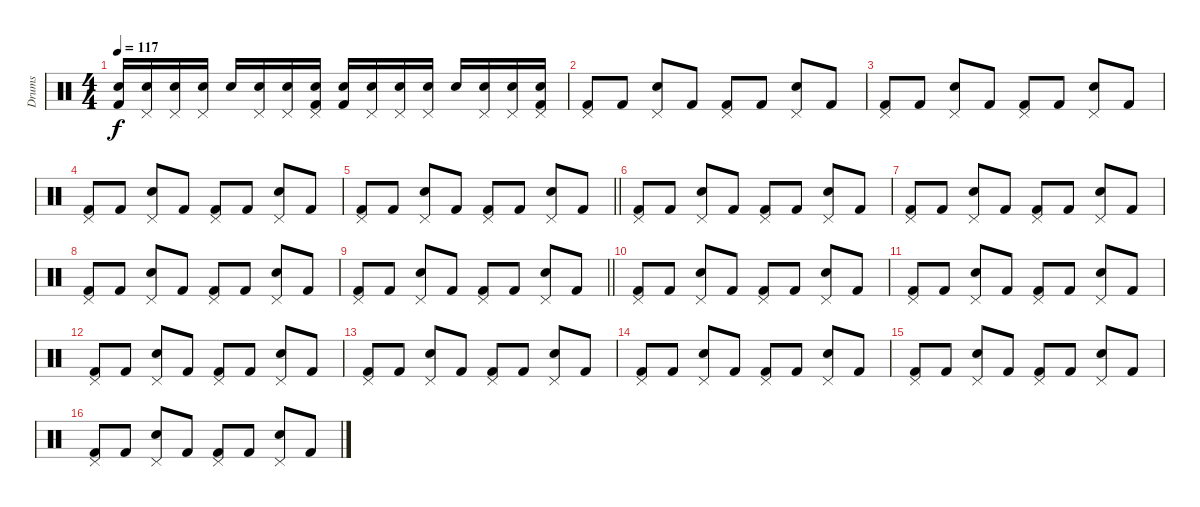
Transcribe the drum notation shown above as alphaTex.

\track ("Drums" "Drums") {instrument percussion}
\staff {score}
\articulation defaults
\ts (4 4)
\tempo 117
\clef neutral
\ks c
("Kick (hit) 2" "Snare (hit) 2").16{dy f} ("Snare (hit) 2" "Pedal Hi-Hat (hit)").16 ("Snare (hit) 2" "Pedal Hi-Hat (hit)").16 ("Snare (hit) 2" "Pedal Hi-Hat (hit)").16 "Snare (hit) 2".16 ("Snare (hit) 2" "Pedal Hi-Hat (hit)").16 ("Snare (hit) 2" "Pedal Hi-Hat (hit)").16 ("Kick (hit) 2" "Snare (hit) 2" "Pedal Hi-Hat (hit)").16 ("Kick (hit) 2" "Snare (hit) 2").16 ("Snare (hit) 2" "Pedal Hi-Hat (hit)").16 ("Snare (hit) 2" "Pedal Hi-Hat (hit)").16 ("Snare (hit) 2" "Pedal Hi-Hat (hit)").16 "Snare (hit) 2".16 ("Snare (hit) 2" "Pedal Hi-Hat (hit)").16 ("Snare (hit) 2" "Pedal Hi-Hat (hit)").16 ("Kick (hit) 2" "Snare (hit) 2" "Pedal Hi-Hat (hit)").16 |
("Kick (hit) 2" "Pedal Hi-Hat (hit)").8 "Kick (hit) 2".8 ("Snare (hit) 2" "Pedal Hi-Hat (hit)").8 "Kick (hit) 2".8 ("Kick (hit) 2" "Pedal Hi-Hat (hit)").8 "Kick (hit) 2".8 ("Snare (hit) 2" "Pedal Hi-Hat (hit)").8 "Kick (hit) 2".8 |
("Kick (hit) 2" "Pedal Hi-Hat (hit)").8 "Kick (hit) 2".8 ("Snare (hit) 2" "Pedal Hi-Hat (hit)").8 "Kick (hit) 2".8 ("Kick (hit) 2" "Pedal Hi-Hat (hit)").8 "Kick (hit) 2".8 ("Snare (hit) 2" "Pedal Hi-Hat (hit)").8 "Kick (hit) 2".8 |
("Kick (hit) 2" "Pedal Hi-Hat (hit)").8 "Kick (hit) 2".8 ("Snare (hit) 2" "Pedal Hi-Hat (hit)").8 "Kick (hit) 2".8 ("Kick (hit) 2" "Pedal Hi-Hat (hit)").8 "Kick (hit) 2".8 ("Snare (hit) 2" "Pedal Hi-Hat (hit)").8 "Kick (hit) 2".8 |
\barLineRight lightlight
("Kick (hit) 2" "Pedal Hi-Hat (hit)").8 "Kick (hit) 2".8 ("Snare (hit) 2" "Pedal Hi-Hat (hit)").8 "Kick (hit) 2".8 ("Kick (hit) 2" "Pedal Hi-Hat (hit)").8 "Kick (hit) 2".8 ("Snare (hit) 2" "Pedal Hi-Hat (hit)").8 "Kick (hit) 2".8 |
("Kick (hit) 2" "Pedal Hi-Hat (hit)").8 "Kick (hit) 2".8 ("Snare (hit) 2" "Pedal Hi-Hat (hit)").8 "Kick (hit) 2".8 ("Kick (hit) 2" "Pedal Hi-Hat (hit)").8 "Kick (hit) 2".8 ("Snare (hit) 2" "Pedal Hi-Hat (hit)").8 "Kick (hit) 2".8 |
("Kick (hit) 2" "Pedal Hi-Hat (hit)").8 "Kick (hit) 2".8 ("Snare (hit) 2" "Pedal Hi-Hat (hit)").8 "Kick (hit) 2".8 ("Kick (hit) 2" "Pedal Hi-Hat (hit)").8 "Kick (hit) 2".8 ("Snare (hit) 2" "Pedal Hi-Hat (hit)").8 "Kick (hit) 2".8 |
("Kick (hit) 2" "Pedal Hi-Hat (hit)").8 "Kick (hit) 2".8 ("Snare (hit) 2" "Pedal Hi-Hat (hit)").8 "Kick (hit) 2".8 ("Kick (hit) 2" "Pedal Hi-Hat (hit)").8 "Kick (hit) 2".8 ("Snare (hit) 2" "Pedal Hi-Hat (hit)").8 "Kick (hit) 2".8 |
\barLineRight lightlight
("Kick (hit) 2" "Pedal Hi-Hat (hit)").8 "Kick (hit) 2".8 ("Snare (hit) 2" "Pedal Hi-Hat (hit)").8 "Kick (hit) 2".8 ("Kick (hit) 2" "Pedal Hi-Hat (hit)").8 "Kick (hit) 2".8 ("Snare (hit) 2" "Pedal Hi-Hat (hit)").8 "Kick (hit) 2".8 |
("Kick (hit) 2" "Pedal Hi-Hat (hit)").8 "Kick (hit) 2".8 ("Snare (hit) 2" "Pedal Hi-Hat (hit)").8 "Kick (hit) 2".8 ("Kick (hit) 2" "Pedal Hi-Hat (hit)").8 "Kick (hit) 2".8 ("Snare (hit) 2" "Pedal Hi-Hat (hit)").8 "Kick (hit) 2".8 |
("Kick (hit) 2" "Pedal Hi-Hat (hit)").8 "Kick (hit) 2".8 ("Snare (hit) 2" "Pedal Hi-Hat (hit)").8 "Kick (hit) 2".8 ("Kick (hit) 2" "Pedal Hi-Hat (hit)").8 "Kick (hit) 2".8 ("Snare (hit) 2" "Pedal Hi-Hat (hit)").8 "Kick (hit) 2".8 |
("Kick (hit) 2" "Pedal Hi-Hat (hit)").8 "Kick (hit) 2".8 ("Snare (hit) 2" "Pedal Hi-Hat (hit)").8 "Kick (hit) 2".8 ("Kick (hit) 2" "Pedal Hi-Hat (hit)").8 "Kick (hit) 2".8 ("Snare (hit) 2" "Pedal Hi-Hat (hit)").8 "Kick (hit) 2".8 |
("Kick (hit) 2" "Pedal Hi-Hat (hit)").8 "Kick (hit) 2".8 ("Snare (hit) 2" "Pedal Hi-Hat (hit)").8 "Kick (hit) 2".8 ("Kick (hit) 2" "Pedal Hi-Hat (hit)").8 "Kick (hit) 2".8 ("Snare (hit) 2" "Pedal Hi-Hat (hit)").8 "Kick (hit) 2".8 |
("Kick (hit) 2" "Pedal Hi-Hat (hit)").8 "Kick (hit) 2".8 ("Snare (hit) 2" "Pedal Hi-Hat (hit)").8 "Kick (hit) 2".8 ("Kick (hit) 2" "Pedal Hi-Hat (hit)").8 "Kick (hit) 2".8 ("Snare (hit) 2" "Pedal Hi-Hat (hit)").8 "Kick (hit) 2".8 |
("Kick (hit) 2" "Pedal Hi-Hat (hit)").8 "Kick (hit) 2".8 ("Snare (hit) 2" "Pedal Hi-Hat (hit)").8 "Kick (hit) 2".8 ("Kick (hit) 2" "Pedal Hi-Hat (hit)").8 "Kick (hit) 2".8 ("Snare (hit) 2" "Pedal Hi-Hat (hit)").8 "Kick (hit) 2".8 |
("Kick (hit) 2" "Pedal Hi-Hat (hit)").8 "Kick (hit) 2".8 ("Snare (hit) 2" "Pedal Hi-Hat (hit)").8 "Kick (hit) 2".8 ("Kick (hit) 2" "Pedal Hi-Hat (hit)").8 "Kick (hit) 2".8 ("Snare (hit) 2" "Pedal Hi-Hat (hit)").8 "Kick (hit) 2".8
